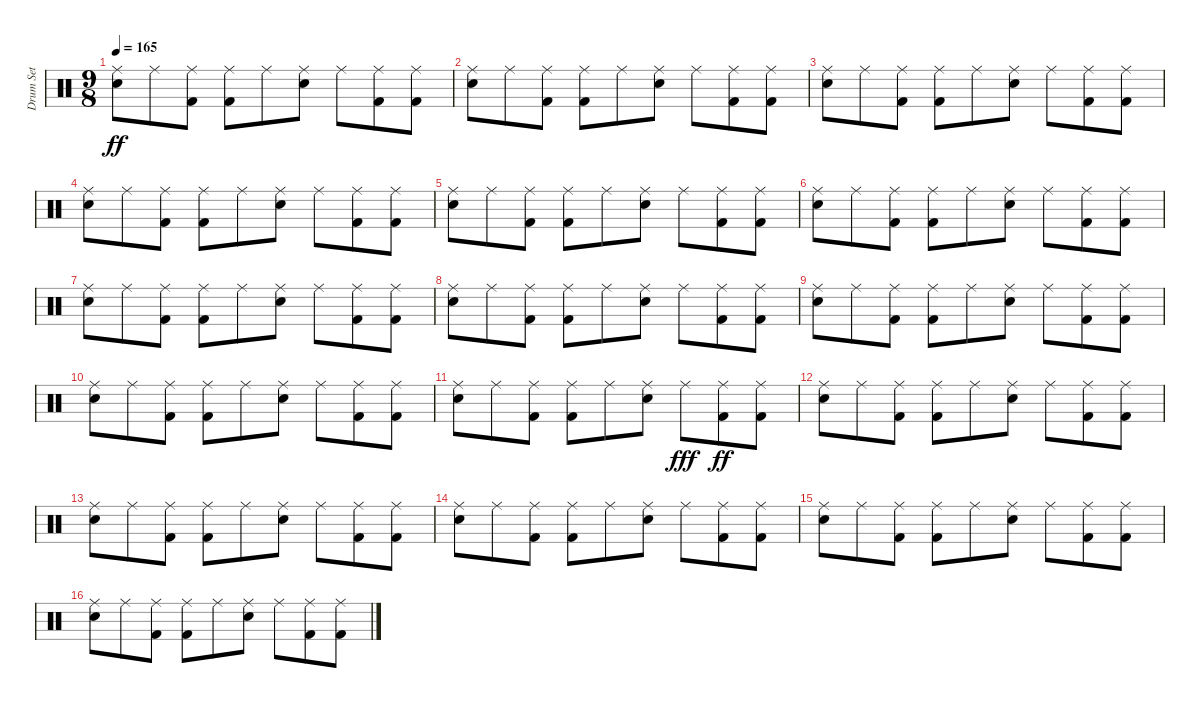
\track ("Drum Set" "Drum Set") {instrument percussion}
\staff {score}
\articulation defaults
\ts (9 8)
\tempo 165
\clef neutral
\ks c
("Snare (hit) 2" "Ride (middle)").8{dy ff} "Ride (middle)".8 ("Kick (hit) 2" "Ride (middle)").8 ("Kick (hit) 2" "Ride (middle)").8 "Ride (middle)".8 ("Snare (hit) 2" "Ride (middle)").8 "Ride (middle)".8 ("Kick (hit) 2" "Ride (middle)").8 ("Kick (hit) 2" "Ride (middle)").8 |
("Snare (hit) 2" "Ride (middle)").8 "Ride (middle)".8 ("Kick (hit) 2" "Ride (middle)").8 ("Kick (hit) 2" "Ride (middle)").8 "Ride (middle)".8 ("Snare (hit) 2" "Ride (middle)").8 "Ride (middle)".8 ("Kick (hit) 2" "Ride (middle)").8 ("Kick (hit) 2" "Ride (middle)").8 |
("Snare (hit) 2" "Ride (middle)").8 "Ride (middle)".8 ("Kick (hit) 2" "Ride (middle)").8 ("Kick (hit) 2" "Ride (middle)").8 "Ride (middle)".8 ("Snare (hit) 2" "Ride (middle)").8 "Ride (middle)".8 ("Kick (hit) 2" "Ride (middle)").8 ("Kick (hit) 2" "Ride (middle)").8 |
("Snare (hit) 2" "Ride (middle)").8 "Ride (middle)".8 ("Kick (hit) 2" "Ride (middle)").8 ("Kick (hit) 2" "Ride (middle)").8 "Ride (middle)".8 ("Snare (hit) 2" "Ride (middle)").8 "Ride (middle)".8 ("Kick (hit) 2" "Ride (middle)").8 ("Kick (hit) 2" "Ride (middle)").8 |
("Snare (hit) 2" "Ride (middle)").8 "Ride (middle)".8 ("Kick (hit) 2" "Ride (middle)").8 ("Kick (hit) 2" "Ride (middle)").8 "Ride (middle)".8 ("Snare (hit) 2" "Ride (middle)").8 "Ride (middle)".8 ("Kick (hit) 2" "Ride (middle)").8 ("Kick (hit) 2" "Ride (middle)").8 |
("Snare (hit) 2" "Ride (middle)").8 "Ride (middle)".8 ("Kick (hit) 2" "Ride (middle)").8 ("Kick (hit) 2" "Ride (middle)").8 "Ride (middle)".8 ("Snare (hit) 2" "Ride (middle)").8 "Ride (middle)".8 ("Kick (hit) 2" "Ride (middle)").8 ("Kick (hit) 2" "Ride (middle)").8 |
("Snare (hit) 2" "Ride (middle)").8 "Ride (middle)".8 ("Kick (hit) 2" "Ride (middle)").8 ("Kick (hit) 2" "Ride (middle)").8 "Ride (middle)".8 ("Snare (hit) 2" "Ride (middle)").8 "Ride (middle)".8 ("Kick (hit) 2" "Ride (middle)").8 ("Kick (hit) 2" "Ride (middle)").8 |
("Snare (hit) 2" "Ride (middle)").8 "Ride (middle)".8 ("Kick (hit) 2" "Ride (middle)").8 ("Kick (hit) 2" "Ride (middle)").8 "Ride (middle)".8 ("Snare (hit) 2" "Ride (middle)").8 "Ride (middle)".8 ("Kick (hit) 2" "Ride (middle)").8 ("Kick (hit) 2" "Ride (middle)").8 |
("Snare (hit) 2" "Ride (middle)").8 "Ride (middle)".8 ("Kick (hit) 2" "Ride (middle)").8 ("Kick (hit) 2" "Ride (middle)").8 "Ride (middle)".8 ("Snare (hit) 2" "Ride (middle)").8 "Ride (middle)".8 ("Kick (hit) 2" "Ride (middle)").8 ("Kick (hit) 2" "Ride (middle)").8 |
("Snare (hit) 2" "Ride (middle)").8 "Ride (middle)".8 ("Kick (hit) 2" "Ride (middle)").8 ("Kick (hit) 2" "Ride (middle)").8 "Ride (middle)".8 ("Snare (hit) 2" "Ride (middle)").8 "Ride (middle)".8 ("Kick (hit) 2" "Ride (middle)").8 ("Kick (hit) 2" "Ride (middle)").8 |
("Snare (hit) 2" "Ride (middle)").8 "Ride (middle)".8 ("Kick (hit) 2" "Ride (middle)").8 ("Kick (hit) 2" "Ride (middle)").8 "Ride (middle)".8 ("Snare (hit) 2" "Ride (middle)").8 "Ride (middle)".8{dy fff} ("Kick (hit) 2" "Ride (middle)").8{dy ff} ("Kick (hit) 2" "Ride (middle)").8 |
("Snare (hit) 2" "Ride (middle)").8 "Ride (middle)".8 ("Kick (hit) 2" "Ride (middle)").8 ("Kick (hit) 2" "Ride (middle)").8 "Ride (middle)".8 ("Snare (hit) 2" "Ride (middle)").8 "Ride (middle)".8 ("Kick (hit) 2" "Ride (middle)").8 ("Kick (hit) 2" "Ride (middle)").8 |
("Snare (hit) 2" "Ride (middle)").8 "Ride (middle)".8 ("Kick (hit) 2" "Ride (middle)").8 ("Kick (hit) 2" "Ride (middle)").8 "Ride (middle)".8 ("Snare (hit) 2" "Ride (middle)").8 "Ride (middle)".8 ("Kick (hit) 2" "Ride (middle)").8 ("Kick (hit) 2" "Ride (middle)").8 |
("Snare (hit) 2" "Ride (middle)").8 "Ride (middle)".8 ("Kick (hit) 2" "Ride (middle)").8 ("Kick (hit) 2" "Ride (middle)").8 "Ride (middle)".8 ("Snare (hit) 2" "Ride (middle)").8 "Ride (middle)".8 ("Kick (hit) 2" "Ride (middle)").8 ("Kick (hit) 2" "Ride (middle)").8 |
("Snare (hit) 2" "Ride (middle)").8 "Ride (middle)".8 ("Kick (hit) 2" "Ride (middle)").8 ("Kick (hit) 2" "Ride (middle)").8 "Ride (middle)".8 ("Snare (hit) 2" "Ride (middle)").8 "Ride (middle)".8 ("Kick (hit) 2" "Ride (middle)").8 ("Kick (hit) 2" "Ride (middle)").8 |
("Snare (hit) 2" "Ride (middle)").8 "Ride (middle)".8 ("Kick (hit) 2" "Ride (middle)").8 ("Kick (hit) 2" "Ride (middle)").8 "Ride (middle)".8 ("Snare (hit) 2" "Ride (middle)").8 "Ride (middle)".8 ("Kick (hit) 2" "Ride (middle)").8 ("Kick (hit) 2" "Ride (middle)").8
